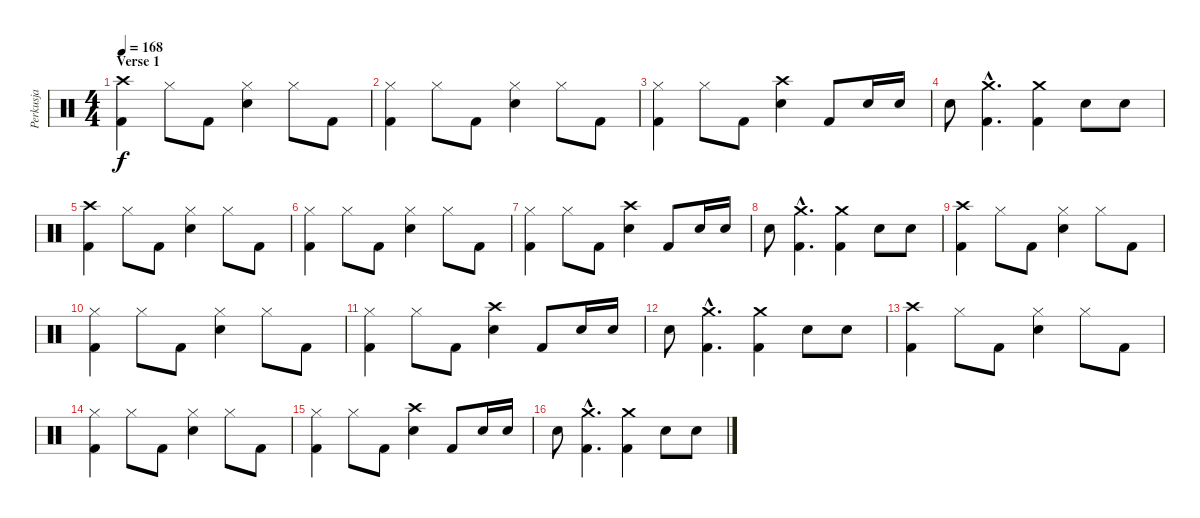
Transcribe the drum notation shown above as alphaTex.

\track ("Perkusja" "Perkusja") {instrument percussion}
\staff {score}
\articulation defaults
\ts (4 4)
\section ("" "Verse 1")
\tempo 168
\clef neutral
\ks c
("Crash high (hit)" "Kick (hit) 2").4{dy f} "Hi-Hat (closed)".8 "Kick (hit) 2".8 ("Hi-Hat (closed)" "Snare (hit) 2").4 "Hi-Hat (closed)".8 "Kick (hit) 2".8 |
("Hi-Hat (closed)" "Kick (hit) 2").4 "Hi-Hat (closed)".8 "Kick (hit) 2".8 ("Hi-Hat (closed)" "Snare (hit) 2").4 "Hi-Hat (closed)".8 "Kick (hit) 2".8 |
("Hi-Hat (closed)" "Kick (hit) 2").4 "Hi-Hat (closed)".8 "Kick (hit) 2".8 ("Crash high (hit)" "Snare (hit) 2").4 "Kick (hit) 2".8 "Snare (hit) 2".16 "Snare (hit) 2".16 |
"Snare (hit) 2".8 ("Crash medium (hit)"{hac} "Kick (hit) 2"{hac}).4{d} ("Crash medium (hit)" "Kick (hit) 2").4 "Snare (hit) 2".8 "Snare (hit) 2".8 |
("Crash high (hit)" "Kick (hit) 2").4 "Hi-Hat (closed)".8 "Kick (hit) 2".8 ("Hi-Hat (closed)" "Snare (hit) 2").4 "Hi-Hat (closed)".8 "Kick (hit) 2".8 |
("Hi-Hat (closed)" "Kick (hit) 2").4 "Hi-Hat (closed)".8 "Kick (hit) 2".8 ("Hi-Hat (closed)" "Snare (hit) 2").4 "Hi-Hat (closed)".8 "Kick (hit) 2".8 |
("Hi-Hat (closed)" "Kick (hit) 2").4 "Hi-Hat (closed)".8 "Kick (hit) 2".8 ("Crash high (hit)" "Snare (hit) 2").4 "Kick (hit) 2".8 "Snare (hit) 2".16 "Snare (hit) 2".16 |
"Snare (hit) 2".8 ("Crash medium (hit)"{hac} "Kick (hit) 2"{hac}).4{d} ("Crash medium (hit)" "Kick (hit) 2").4 "Snare (hit) 2".8 "Snare (hit) 2".8 |
("Crash high (hit)" "Kick (hit) 2").4 "Hi-Hat (closed)".8 "Kick (hit) 2".8 ("Hi-Hat (closed)" "Snare (hit) 2").4 "Hi-Hat (closed)".8 "Kick (hit) 2".8 |
("Hi-Hat (closed)" "Kick (hit) 2").4 "Hi-Hat (closed)".8 "Kick (hit) 2".8 ("Hi-Hat (closed)" "Snare (hit) 2").4 "Hi-Hat (closed)".8 "Kick (hit) 2".8 |
("Hi-Hat (closed)" "Kick (hit) 2").4 "Hi-Hat (closed)".8 "Kick (hit) 2".8 ("Crash high (hit)" "Snare (hit) 2").4 "Kick (hit) 2".8 "Snare (hit) 2".16 "Snare (hit) 2".16 |
"Snare (hit) 2".8 ("Crash medium (hit)"{hac} "Kick (hit) 2"{hac}).4{d} ("Crash medium (hit)" "Kick (hit) 2").4 "Snare (hit) 2".8 "Snare (hit) 2".8 |
("Crash high (hit)" "Kick (hit) 2").4 "Hi-Hat (closed)".8 "Kick (hit) 2".8 ("Hi-Hat (closed)" "Snare (hit) 2").4 "Hi-Hat (closed)".8 "Kick (hit) 2".8 |
("Hi-Hat (closed)" "Kick (hit) 2").4 "Hi-Hat (closed)".8 "Kick (hit) 2".8 ("Hi-Hat (closed)" "Snare (hit) 2").4 "Hi-Hat (closed)".8 "Kick (hit) 2".8 |
("Hi-Hat (closed)" "Kick (hit) 2").4 "Hi-Hat (closed)".8 "Kick (hit) 2".8 ("Crash high (hit)" "Snare (hit) 2").4 "Kick (hit) 2".8 "Snare (hit) 2".16 "Snare (hit) 2".16 |
"Snare (hit) 2".8 ("Crash medium (hit)"{hac} "Kick (hit) 2"{hac}).4{d} ("Crash medium (hit)" "Kick (hit) 2").4 "Snare (hit) 2".8 "Snare (hit) 2".8
